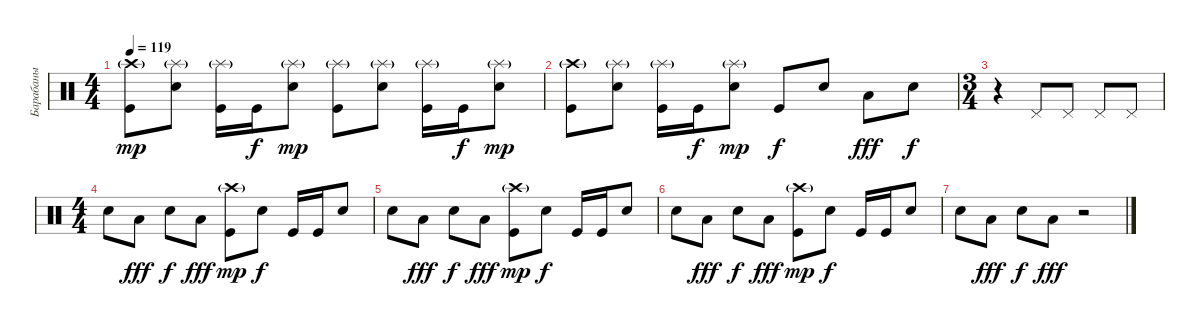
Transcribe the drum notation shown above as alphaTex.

\track ("Барабаны" "Барабаны") {instrument percussion}
\staff {score}
\articulation defaults
\ts (4 4)
\tempo 119
\clef neutral
\ks c
("Crash high (hit)"{g} "Kick (hit)").8{dy mp} ("Splash (hit)"{g} "Electric Snare (hit)").8 ("Splash (hit)"{g} "Kick (hit)").16 "Kick (hit)".16{dy f} ("Splash (hit)"{g} "Electric Snare (hit)").8{dy mp} ("Splash (hit)"{g} "Kick (hit)").8 ("Splash (hit)"{g} "Electric Snare (hit)").8 ("Splash (hit)"{g} "Kick (hit)").16 "Kick (hit)".16{dy f} ("Splash (hit)"{g} "Electric Snare (hit)").8{dy mp} |
("Crash high (hit)"{g} "Kick (hit)").8 ("Splash (hit)"{g} "Electric Snare (hit)").8 ("Splash (hit)"{g} "Kick (hit)").16 "Kick (hit)".16{dy f} ("Splash (hit)"{g} "Electric Snare (hit)").8{dy mp} "Kick (hit)".8{dy f} "Electric Snare (hit)".8 "Low Tom (hit)".8{dy fff} "Electric Snare (hit)".8{dy f} |
\ts (3 4)
r.4 "Pedal Hi-Hat (hit)".8 "Pedal Hi-Hat (hit)".8 "Pedal Hi-Hat (hit)".8 "Pedal Hi-Hat (hit)".8 |
\ts (4 4)
"Electric Snare (hit)".8 "Low Tom (hit)".8{dy fff} "Electric Snare (hit)".8{dy f} "Low Tom (hit)".8{dy fff} ("Crash high (hit)"{g} "Kick (hit)").8{dy mp} "Electric Snare (hit)".8{dy f} "Kick (hit)".16 "Kick (hit)".16 "Electric Snare (hit)".8 |
"Electric Snare (hit)".8 "Low Tom (hit)".8{dy fff} "Electric Snare (hit)".8{dy f} "Low Tom (hit)".8{dy fff} ("Crash high (hit)"{g} "Kick (hit)").8{dy mp} "Electric Snare (hit)".8{dy f} "Kick (hit)".16 "Kick (hit)".16 "Electric Snare (hit)".8 |
"Electric Snare (hit)".8 "Low Tom (hit)".8{dy fff} "Electric Snare (hit)".8{dy f} "Low Tom (hit)".8{dy fff} ("Crash high (hit)"{g} "Kick (hit)").8{dy mp} "Electric Snare (hit)".8{dy f} "Kick (hit)".16 "Kick (hit)".16 "Electric Snare (hit)".8 |
"Electric Snare (hit)".8 "Low Tom (hit)".8{dy fff} "Electric Snare (hit)".8{dy f} "Low Tom (hit)".8{dy fff} r.2
